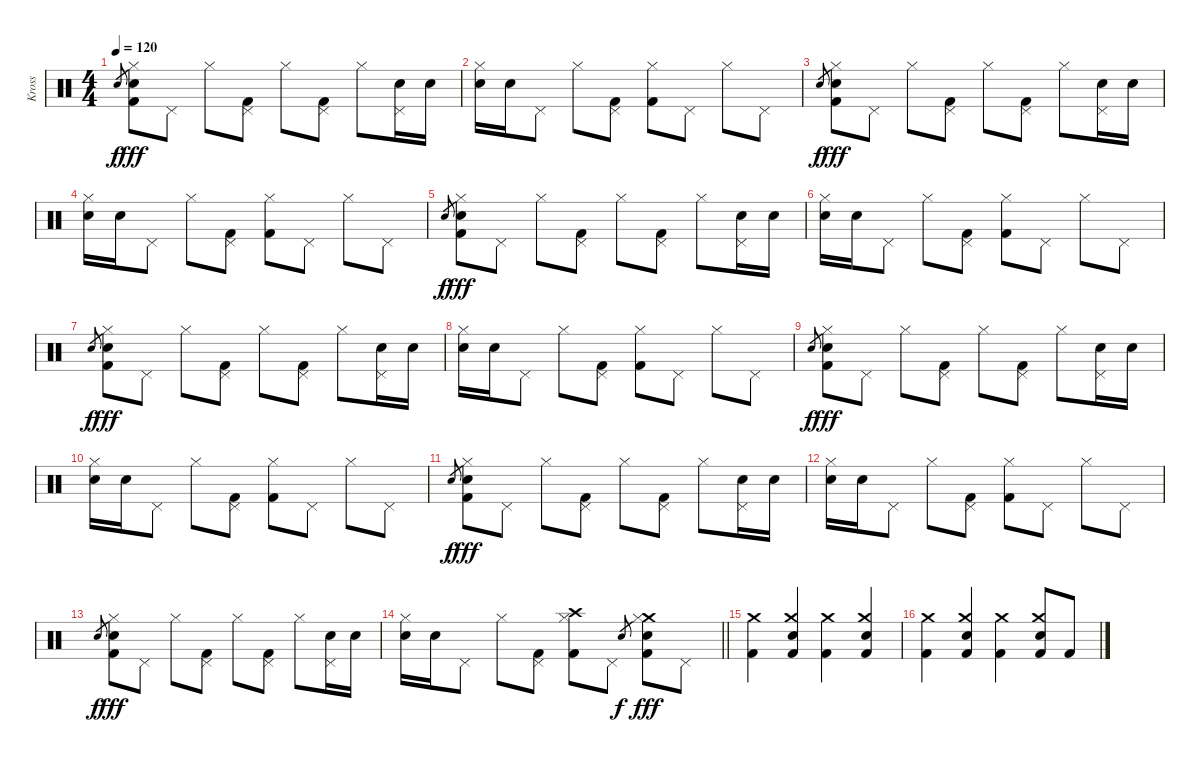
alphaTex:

\track ("Kross" "Kross") {instrument percussion}
\staff {score}
\articulation defaults
\ts (4 4)
\tempo 120
\clef neutral
\ks c "Electric Snare (hit)".8{gr dy f}
("Electric Snare (hit)" "Kick (hit) 2" "Hi-Hat (closed)").8{dy fff} "Pedal Hi-Hat (hit)".8 "Hi-Hat (closed)".8 ("Kick (hit) 2" "Pedal Hi-Hat (hit)").8 "Hi-Hat (closed)".8 ("Kick (hit) 2" "Pedal Hi-Hat (hit)").8 "Hi-Hat (closed)".8 ("Electric Snare (hit)" "Pedal Hi-Hat (hit)").16 "Electric Snare (hit)".16 |
("Electric Snare (hit)" "Hi-Hat (closed)").16 "Electric Snare (hit)".16 "Pedal Hi-Hat (hit)".8 "Hi-Hat (closed)".8 ("Kick (hit) 2" "Pedal Hi-Hat (hit)").8 ("Kick (hit) 2" "Hi-Hat (closed)").8 "Pedal Hi-Hat (hit)".8 "Hi-Hat (closed)".8 "Pedal Hi-Hat (hit)".8 |
"Electric Snare (hit)".8{gr dy f} ("Electric Snare (hit)" "Kick (hit) 2" "Hi-Hat (closed)").8{dy fff} "Pedal Hi-Hat (hit)".8 "Hi-Hat (closed)".8 ("Kick (hit) 2" "Pedal Hi-Hat (hit)").8 "Hi-Hat (closed)".8 ("Kick (hit) 2" "Pedal Hi-Hat (hit)").8 "Hi-Hat (closed)".8 ("Electric Snare (hit)" "Pedal Hi-Hat (hit)").16 "Electric Snare (hit)".16 |
("Electric Snare (hit)" "Hi-Hat (closed)").16 "Electric Snare (hit)".16 "Pedal Hi-Hat (hit)".8 "Hi-Hat (closed)".8 ("Kick (hit) 2" "Pedal Hi-Hat (hit)").8 ("Kick (hit) 2" "Hi-Hat (closed)").8 "Pedal Hi-Hat (hit)".8 "Hi-Hat (closed)".8 "Pedal Hi-Hat (hit)".8 |
"Electric Snare (hit)".8{gr dy f} ("Electric Snare (hit)" "Kick (hit) 2" "Hi-Hat (closed)").8{dy fff} "Pedal Hi-Hat (hit)".8 "Hi-Hat (closed)".8 ("Kick (hit) 2" "Pedal Hi-Hat (hit)").8 "Hi-Hat (closed)".8 ("Kick (hit) 2" "Pedal Hi-Hat (hit)").8 "Hi-Hat (closed)".8 ("Electric Snare (hit)" "Pedal Hi-Hat (hit)").16 "Electric Snare (hit)".16 |
("Electric Snare (hit)" "Hi-Hat (closed)").16 "Electric Snare (hit)".16 "Pedal Hi-Hat (hit)".8 "Hi-Hat (closed)".8 ("Kick (hit) 2" "Pedal Hi-Hat (hit)").8 ("Kick (hit) 2" "Hi-Hat (closed)").8 "Pedal Hi-Hat (hit)".8 "Hi-Hat (closed)".8 "Pedal Hi-Hat (hit)".8 |
"Electric Snare (hit)".8{gr dy f} ("Electric Snare (hit)" "Kick (hit) 2" "Hi-Hat (closed)").8{dy fff} "Pedal Hi-Hat (hit)".8 "Hi-Hat (closed)".8 ("Kick (hit) 2" "Pedal Hi-Hat (hit)").8 "Hi-Hat (closed)".8 ("Kick (hit) 2" "Pedal Hi-Hat (hit)").8 "Hi-Hat (closed)".8 ("Electric Snare (hit)" "Pedal Hi-Hat (hit)").16 "Electric Snare (hit)".16 |
("Electric Snare (hit)" "Hi-Hat (closed)").16 "Electric Snare (hit)".16 "Pedal Hi-Hat (hit)".8 "Hi-Hat (closed)".8 ("Kick (hit) 2" "Pedal Hi-Hat (hit)").8 ("Kick (hit) 2" "Hi-Hat (closed)").8 "Pedal Hi-Hat (hit)".8 "Hi-Hat (closed)".8 "Pedal Hi-Hat (hit)".8 |
"Electric Snare (hit)".8{gr dy f} ("Electric Snare (hit)" "Kick (hit) 2" "Hi-Hat (closed)").8{dy fff} "Pedal Hi-Hat (hit)".8 "Hi-Hat (closed)".8 ("Kick (hit) 2" "Pedal Hi-Hat (hit)").8 "Hi-Hat (closed)".8 ("Kick (hit) 2" "Pedal Hi-Hat (hit)").8 "Hi-Hat (closed)".8 ("Electric Snare (hit)" "Pedal Hi-Hat (hit)").16 "Electric Snare (hit)".16 |
("Electric Snare (hit)" "Hi-Hat (closed)").16 "Electric Snare (hit)".16 "Pedal Hi-Hat (hit)".8 "Hi-Hat (closed)".8 ("Kick (hit) 2" "Pedal Hi-Hat (hit)").8 ("Kick (hit) 2" "Hi-Hat (closed)").8 "Pedal Hi-Hat (hit)".8 "Hi-Hat (closed)".8 "Pedal Hi-Hat (hit)".8 |
"Electric Snare (hit)".8{gr dy f} ("Electric Snare (hit)" "Kick (hit) 2" "Hi-Hat (closed)").8{dy fff} "Pedal Hi-Hat (hit)".8 "Hi-Hat (closed)".8 ("Kick (hit) 2" "Pedal Hi-Hat (hit)").8 "Hi-Hat (closed)".8 ("Kick (hit) 2" "Pedal Hi-Hat (hit)").8 "Hi-Hat (closed)".8 ("Electric Snare (hit)" "Pedal Hi-Hat (hit)").16 "Electric Snare (hit)".16 |
("Electric Snare (hit)" "Hi-Hat (closed)").16 "Electric Snare (hit)".16 "Pedal Hi-Hat (hit)".8 "Hi-Hat (closed)".8 ("Kick (hit) 2" "Pedal Hi-Hat (hit)").8 ("Kick (hit) 2" "Hi-Hat (closed)").8 "Pedal Hi-Hat (hit)".8 "Hi-Hat (closed)".8 "Pedal Hi-Hat (hit)".8 |
"Electric Snare (hit)".8{gr dy f} ("Electric Snare (hit)" "Kick (hit) 2" "Hi-Hat (closed)").8{dy fff} "Pedal Hi-Hat (hit)".8 "Hi-Hat (closed)".8 ("Kick (hit) 2" "Pedal Hi-Hat (hit)").8 "Hi-Hat (closed)".8 ("Kick (hit) 2" "Pedal Hi-Hat (hit)").8 "Hi-Hat (closed)".8 ("Electric Snare (hit)" "Pedal Hi-Hat (hit)").16 "Electric Snare (hit)".16 |
\barLineRight lightlight
("Electric Snare (hit)" "Hi-Hat (closed)").16 "Electric Snare (hit)".16 "Pedal Hi-Hat (hit)".8 "Hi-Hat (closed)".8 ("Kick (hit) 2" "Pedal Hi-Hat (hit)").8 ("Crash high (hit)" "Kick (hit) 2" "Hi-Hat (closed)").8 "Pedal Hi-Hat (hit)".8 "Electric Snare (hit)".8{gr dy f} ("Electric Snare (hit)" "Crash medium (hit)" "Kick (hit) 2" "Hi-Hat (closed)").8{dy fff} "Pedal Hi-Hat (hit)".8 |
("Crash medium (hit)" "Kick (hit) 2").4 ("Snare (hit) 2" "Crash medium (hit)" "Kick (hit) 2").4 ("Crash medium (hit)" "Kick (hit) 2").4 ("Snare (hit) 2" "Crash medium (hit)" "Kick (hit) 2").4 |
("Crash medium (hit)" "Kick (hit) 2").4 ("Snare (hit) 2" "Crash medium (hit)" "Kick (hit) 2").4 ("Crash medium (hit)" "Kick (hit) 2").4 ("Snare (hit) 2" "Crash medium (hit)" "Kick (hit) 2").8 "Kick (hit) 2".8
